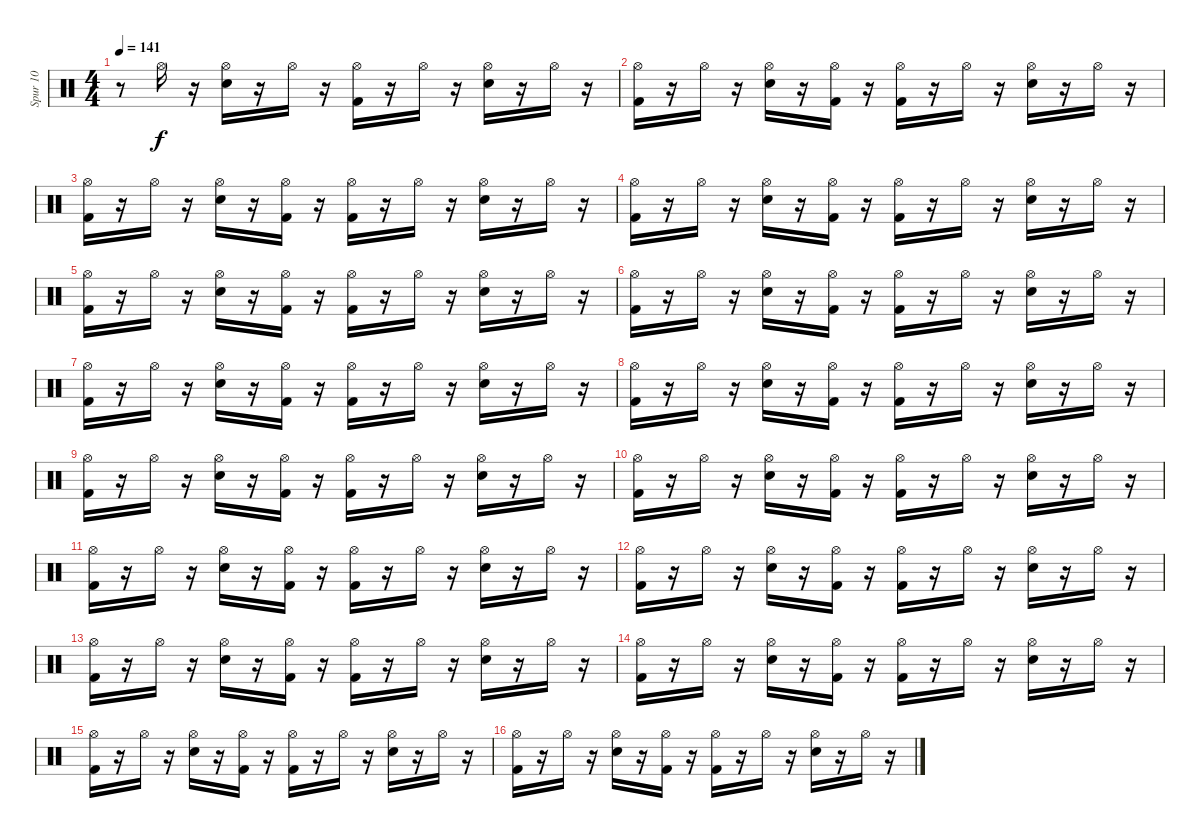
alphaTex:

\track ("Spur 10" "Spur 10") {instrument percussion}
\staff {score}
\articulation defaults
\ts (4 4)
\tempo 141
\clef neutral
\ks c
r.8{dy f} "Hi-Hat (open)".16 r.16 ("Hi-Hat (open)" "Snare (hit) 2").16 r.16 "Hi-Hat (open)".16 r.16 ("Hi-Hat (open)" "Kick (hit) 2").16 r.16 "Hi-Hat (open)".16 r.16 ("Hi-Hat (open)" "Snare (hit) 2").16 r.16 "Hi-Hat (open)".16 r.16 |
("Hi-Hat (open)" "Kick (hit) 2").16 r.16 "Hi-Hat (open)".16 r.16 ("Hi-Hat (open)" "Snare (hit) 2").16 r.16 ("Hi-Hat (open)" "Kick (hit) 2").16 r.16 ("Hi-Hat (open)" "Kick (hit) 2").16 r.16 "Hi-Hat (open)".16 r.16 ("Hi-Hat (open)" "Snare (hit) 2").16 r.16 "Hi-Hat (open)".16 r.16 |
("Hi-Hat (open)" "Kick (hit) 2").16 r.16 "Hi-Hat (open)".16 r.16 ("Hi-Hat (open)" "Snare (hit) 2").16 r.16 ("Hi-Hat (open)" "Kick (hit) 2").16 r.16 ("Hi-Hat (open)" "Kick (hit) 2").16 r.16 "Hi-Hat (open)".16 r.16 ("Hi-Hat (open)" "Snare (hit) 2").16 r.16 "Hi-Hat (open)".16 r.16 |
("Kick (hit) 2" "Hi-Hat (open)").16 r.16 "Hi-Hat (open)".16 r.16 ("Snare (hit) 2" "Hi-Hat (open)").16 r.16 ("Kick (hit) 2" "Hi-Hat (open)").16 r.16 ("Kick (hit) 2" "Hi-Hat (open)").16 r.16 "Hi-Hat (open)".16 r.16 ("Snare (hit) 2" "Hi-Hat (open)").16 r.16 "Hi-Hat (open)".16 r.16 |
("Kick (hit) 2" "Hi-Hat (open)").16 r.16 "Hi-Hat (open)".16 r.16 ("Snare (hit) 2" "Hi-Hat (open)").16 r.16 ("Kick (hit) 2" "Hi-Hat (open)").16 r.16 ("Kick (hit) 2" "Hi-Hat (open)").16 r.16 "Hi-Hat (open)".16 r.16 ("Snare (hit) 2" "Hi-Hat (open)").16 r.16 "Hi-Hat (open)".16 r.16 |
("Kick (hit) 2" "Hi-Hat (open)").16 r.16 "Hi-Hat (open)".16 r.16 ("Snare (hit) 2" "Hi-Hat (open)").16 r.16 ("Kick (hit) 2" "Hi-Hat (open)").16 r.16 ("Kick (hit) 2" "Hi-Hat (open)").16 r.16 "Hi-Hat (open)".16 r.16 ("Snare (hit) 2" "Hi-Hat (open)").16 r.16 "Hi-Hat (open)".16 r.16 |
("Kick (hit) 2" "Hi-Hat (open)").16 r.16 "Hi-Hat (open)".16 r.16 ("Snare (hit) 2" "Hi-Hat (open)").16 r.16 ("Kick (hit) 2" "Hi-Hat (open)").16 r.16 ("Kick (hit) 2" "Hi-Hat (open)").16 r.16 "Hi-Hat (open)".16 r.16 ("Snare (hit) 2" "Hi-Hat (open)").16 r.16 "Hi-Hat (open)".16 r.16 |
("Hi-Hat (open)" "Kick (hit) 2").16 r.16 "Hi-Hat (open)".16 r.16 ("Hi-Hat (open)" "Snare (hit) 2").16 r.16 ("Hi-Hat (open)" "Kick (hit) 2").16 r.16 ("Hi-Hat (open)" "Kick (hit) 2").16 r.16 "Hi-Hat (open)".16 r.16 ("Hi-Hat (open)" "Snare (hit) 2").16 r.16 "Hi-Hat (open)".16 r.16 |
("Hi-Hat (open)" "Kick (hit) 2").16 r.16 "Hi-Hat (open)".16 r.16 ("Hi-Hat (open)" "Snare (hit) 2").16 r.16 ("Hi-Hat (open)" "Kick (hit) 2").16 r.16 ("Hi-Hat (open)" "Kick (hit) 2").16 r.16 "Hi-Hat (open)".16 r.16 ("Hi-Hat (open)" "Snare (hit) 2").16 r.16 "Hi-Hat (open)".16 r.16 |
("Hi-Hat (open)" "Kick (hit) 2").16 r.16 "Hi-Hat (open)".16 r.16 ("Hi-Hat (open)" "Snare (hit) 2").16 r.16 ("Hi-Hat (open)" "Kick (hit) 2").16 r.16 ("Hi-Hat (open)" "Kick (hit) 2").16 r.16 "Hi-Hat (open)".16 r.16 ("Hi-Hat (open)" "Snare (hit) 2").16 r.16 "Hi-Hat (open)".16 r.16 |
("Hi-Hat (open)" "Kick (hit) 2").16 r.16 "Hi-Hat (open)".16 r.16 ("Hi-Hat (open)" "Snare (hit) 2").16 r.16 ("Hi-Hat (open)" "Kick (hit) 2").16 r.16 ("Hi-Hat (open)" "Kick (hit) 2").16 r.16 "Hi-Hat (open)".16 r.16 ("Hi-Hat (open)" "Snare (hit) 2").16 r.16 "Hi-Hat (open)".16 r.16 |
("Hi-Hat (open)" "Kick (hit) 2").16 r.16 "Hi-Hat (open)".16 r.16 ("Hi-Hat (open)" "Snare (hit) 2").16 r.16 ("Hi-Hat (open)" "Kick (hit) 2").16 r.16 ("Hi-Hat (open)" "Kick (hit) 2").16 r.16 "Hi-Hat (open)".16 r.16 ("Hi-Hat (open)" "Snare (hit) 2").16 r.16 "Hi-Hat (open)".16 r.16 |
("Hi-Hat (open)" "Kick (hit) 2").16 r.16 "Hi-Hat (open)".16 r.16 ("Hi-Hat (open)" "Snare (hit) 2").16 r.16 ("Hi-Hat (open)" "Kick (hit) 2").16 r.16 ("Hi-Hat (open)" "Kick (hit) 2").16 r.16 "Hi-Hat (open)".16 r.16 ("Hi-Hat (open)" "Snare (hit) 2").16 r.16 "Hi-Hat (open)".16 r.16 |
("Hi-Hat (open)" "Kick (hit) 2").16 r.16 "Hi-Hat (open)".16 r.16 ("Hi-Hat (open)" "Snare (hit) 2").16 r.16 ("Hi-Hat (open)" "Kick (hit) 2").16 r.16 ("Hi-Hat (open)" "Kick (hit) 2").16 r.16 "Hi-Hat (open)".16 r.16 ("Hi-Hat (open)" "Snare (hit) 2").16 r.16 "Hi-Hat (open)".16 r.16 |
("Hi-Hat (open)" "Kick (hit) 2").16 r.16 "Hi-Hat (open)".16 r.16 ("Hi-Hat (open)" "Snare (hit) 2").16 r.16 ("Hi-Hat (open)" "Kick (hit) 2").16 r.16 ("Hi-Hat (open)" "Kick (hit) 2").16 r.16 "Hi-Hat (open)".16 r.16 ("Hi-Hat (open)" "Snare (hit) 2").16 r.16 "Hi-Hat (open)".16 r.16 |
("Hi-Hat (open)" "Kick (hit) 2").16 r.16 "Hi-Hat (open)".16 r.16 ("Hi-Hat (open)" "Snare (hit) 2").16 r.16 ("Hi-Hat (open)" "Kick (hit) 2").16 r.16 ("Hi-Hat (open)" "Kick (hit) 2").16 r.16 "Hi-Hat (open)".16 r.16 ("Hi-Hat (open)" "Snare (hit) 2").16 r.16 "Hi-Hat (open)".16 r.16
